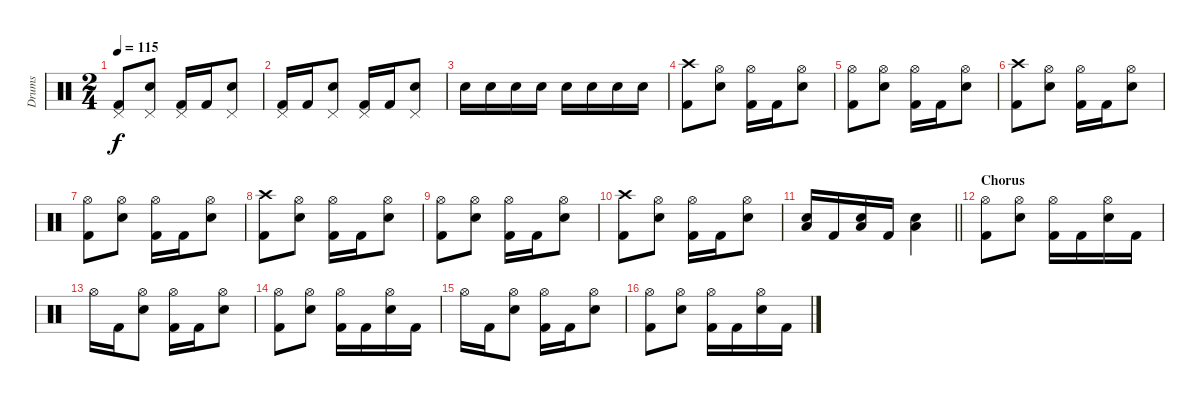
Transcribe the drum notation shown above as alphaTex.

\track ("Drums" "Drums") {instrument percussion}
\staff {score}
\articulation defaults
\ts (2 4)
\tempo 115
\clef neutral
\ks c
("Pedal Hi-Hat (hit)" "Kick (hit) 2").8{dy f} ("Pedal Hi-Hat (hit)" "Electric Snare (hit)").8 ("Pedal Hi-Hat (hit)" "Kick (hit) 2").16 "Kick (hit) 2".16 ("Pedal Hi-Hat (hit)" "Electric Snare (hit)").8 |
("Pedal Hi-Hat (hit)" "Kick (hit) 2").16 "Kick (hit) 2".16 ("Pedal Hi-Hat (hit)" "Electric Snare (hit)").8 ("Pedal Hi-Hat (hit)" "Kick (hit) 2").16 "Kick (hit) 2".16 ("Pedal Hi-Hat (hit)" "Electric Snare (hit)").8 |
"Electric Snare (hit)".16 "Electric Snare (hit)".16 "Electric Snare (hit)".16 "Electric Snare (hit)".16 "Electric Snare (hit)".16 "Electric Snare (hit)".16 "Electric Snare (hit)".16 "Electric Snare (hit)".16 |
("Crash high (hit)" "Kick (hit) 2").8 ("Hi-Hat (open)" "Electric Snare (hit)").8 ("Hi-Hat (open)" "Kick (hit) 2").16 "Kick (hit) 2".16 ("Hi-Hat (open)" "Electric Snare (hit)").8 |
("Hi-Hat (open)" "Kick (hit) 2").8 ("Hi-Hat (open)" "Electric Snare (hit)").8 ("Hi-Hat (open)" "Kick (hit) 2").16 "Kick (hit) 2".16 ("Hi-Hat (open)" "Electric Snare (hit)").8 |
("Crash high (hit)" "Kick (hit) 2").8 ("Hi-Hat (open)" "Electric Snare (hit)").8 ("Hi-Hat (open)" "Kick (hit) 2").16 "Kick (hit) 2".16 ("Hi-Hat (open)" "Electric Snare (hit)").8 |
("Hi-Hat (open)" "Kick (hit) 2").8 ("Hi-Hat (open)" "Electric Snare (hit)").8 ("Hi-Hat (open)" "Kick (hit) 2").16 "Kick (hit) 2".16 ("Hi-Hat (open)" "Electric Snare (hit)").8 |
("Crash high (hit)" "Kick (hit) 2").8 ("Hi-Hat (open)" "Electric Snare (hit)").8 ("Hi-Hat (open)" "Kick (hit) 2").16 "Kick (hit) 2".16 ("Hi-Hat (open)" "Electric Snare (hit)").8 |
("Hi-Hat (open)" "Kick (hit) 2").8 ("Hi-Hat (open)" "Electric Snare (hit)").8 ("Hi-Hat (open)" "Kick (hit) 2").16 "Kick (hit) 2".16 ("Hi-Hat (open)" "Electric Snare (hit)").8 |
("Crash high (hit)" "Kick (hit) 2").8 ("Hi-Hat (open)" "Electric Snare (hit)").8 ("Hi-Hat (open)" "Kick (hit) 2").16 "Kick (hit) 2".16 ("Hi-Hat (open)" "Electric Snare (hit)").8 |
\barLineRight lightlight
("Low Floor Tom (hit)" "Electric Snare (hit)").16 "Kick (hit) 2".16 ("Low Floor Tom (hit)" "Electric Snare (hit)").16 "Kick (hit) 2".16 ("Low Floor Tom (hit)" "Electric Snare (hit)").4 |
\section ("" "Chorus")
("Hi-Hat (open)" "Kick (hit) 2").8 ("Hi-Hat (open)" "Electric Snare (hit)").8 ("Hi-Hat (open)" "Kick (hit) 2").16 "Kick (hit) 2".16 ("Hi-Hat (open)" "Electric Snare (hit)").16 "Kick (hit) 2".16 |
"Hi-Hat (open)".16 "Kick (hit) 2".16 ("Hi-Hat (open)" "Electric Snare (hit)").8 ("Hi-Hat (open)" "Kick (hit) 2").16 "Kick (hit) 2".16 ("Hi-Hat (open)" "Electric Snare (hit)").8 |
("Hi-Hat (open)" "Kick (hit) 2").8 ("Hi-Hat (open)" "Electric Snare (hit)").8 ("Hi-Hat (open)" "Kick (hit) 2").16 "Kick (hit) 2".16 ("Hi-Hat (open)" "Electric Snare (hit)").16 "Kick (hit) 2".16 |
"Hi-Hat (open)".16 "Kick (hit) 2".16 ("Hi-Hat (open)" "Electric Snare (hit)").8 ("Hi-Hat (open)" "Kick (hit) 2").16 "Kick (hit) 2".16 ("Hi-Hat (open)" "Electric Snare (hit)").8 |
("Hi-Hat (open)" "Kick (hit) 2").8 ("Hi-Hat (open)" "Electric Snare (hit)").8 ("Hi-Hat (open)" "Kick (hit) 2").16 "Kick (hit) 2".16 ("Hi-Hat (open)" "Electric Snare (hit)").16 "Kick (hit) 2".16
